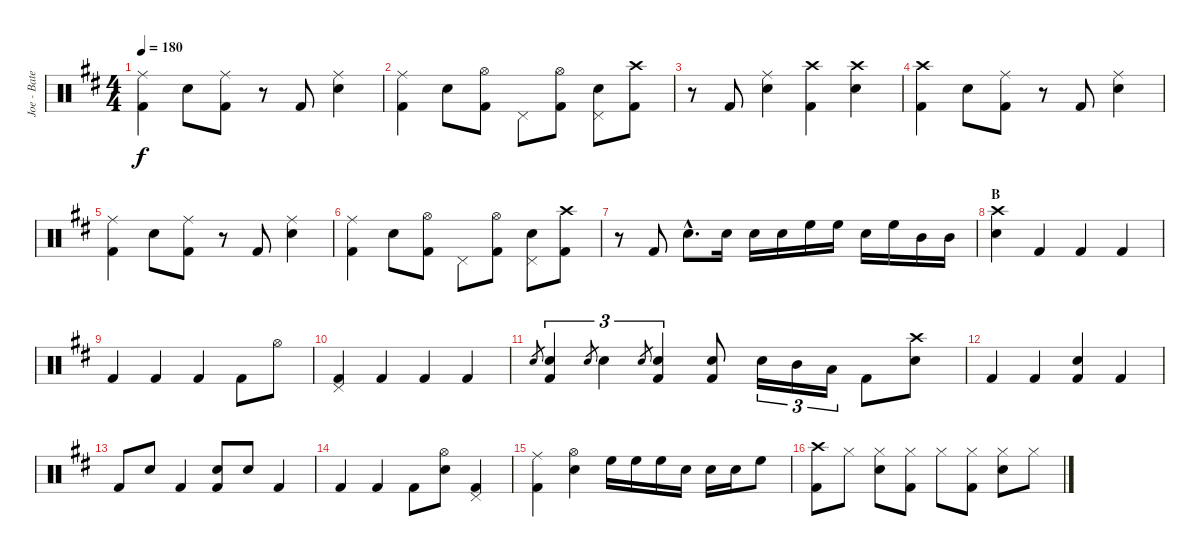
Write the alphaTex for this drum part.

\track ("Joe - Batería -" "Joe - Bate") {instrument percussion}
\staff {score}
\articulation defaults
\ts (4 4)
\tempo 180
\clef neutral
\ks bminor
("Ride (middle)" "Kick (hit) 2").4{dy f} "Snare (hit) 2".8 ("Ride (middle)" "Kick (hit) 2").8 r.8 "Kick (hit) 2".8 ("Ride (middle)" "Snare (hit) 2").4 |
("Ride (middle)" "Kick (hit) 2").4 "Snare (hit) 2".8 ("Hi-Hat (open)" "Kick (hit) 2").8 "Pedal Hi-Hat (hit)".8 ("Hi-Hat (open)" "Kick (hit) 2").8 ("Pedal Hi-Hat (hit)" "Snare (hit) 2").8 ("Crash high (hit)" "Kick (hit) 2").8 |
r.8 "Kick (hit) 2".8 ("Ride (middle)" "Snare (hit) 2").4 ("Crash high (hit)" "Kick (hit) 2").4 ("Crash high (hit)" "Snare (hit) 2").4 |
("Crash high (hit)" "Kick (hit) 2").4 "Snare (hit) 2".8 ("Ride (middle)" "Kick (hit) 2").8 r.8 "Kick (hit) 2".8 ("Ride (middle)" "Snare (hit) 2").4 |
("Ride (middle)" "Kick (hit) 2").4 "Snare (hit) 2".8 ("Ride (middle)" "Kick (hit) 2").8 r.8 "Kick (hit) 2".8 ("Ride (middle)" "Snare (hit) 2").4 |
("Ride (middle)" "Kick (hit) 2").4 "Snare (hit) 2".8 ("Hi-Hat (open)" "Kick (hit) 2").8 "Pedal Hi-Hat (hit)".8 ("Hi-Hat (open)" "Kick (hit) 2").8 ("Pedal Hi-Hat (hit)" "Snare (hit) 2").8 ("Crash high (hit)" "Kick (hit) 2").8 |
r.8 "Kick (hit) 2".8 "Snare (hit) 2"{hac}.8{d} "Snare (hit) 2".16 "Snare (hit) 2".16 "Snare (hit) 2".16 "High Floor Tom (hit)".16 "High Floor Tom (hit)".16 "Snare (hit) 2".16 "High Floor Tom (hit)".16 "Mid Tom (hit)".16 "Mid Tom (hit)".16 |
\section ("" "B")
("Crash high (hit)" "Snare (hit) 2").4 "Kick (hit) 2".4 "Kick (hit) 2".4 "Kick (hit) 2".4 |
"Kick (hit) 2".4 "Kick (hit) 2".4 "Kick (hit) 2".4 "Kick (hit) 2".8 "Hi-Hat (open)".8 |
("Pedal Hi-Hat (hit)" "Kick (hit) 2").4 "Kick (hit) 2".4 "Kick (hit) 2".4 "Kick (hit) 2".4 |
"Snare (hit) 2".8{gr} ("Snare (hit) 2" "Kick (hit) 2").4{tu (3 2)} "Snare (hit) 2".8{gr} "Snare (hit) 2".4{tu (3 2)} "Snare (hit) 2".8{gr} ("Snare (hit) 2" "Kick (hit) 2").4{tu (3 2)} ("Snare (hit) 2" "Kick (hit) 2").8 "Snare (hit) 2".16{tu (3 2)} "Mid Tom (hit)".16{tu (3 2)} "Low Tom (hit)".16{tu (3 2)} "Kick (hit) 2".8 ("Crash high (hit)" "Snare (hit) 2").8 |
\section ("" "")
"Kick (hit) 2".4 "Kick (hit) 2".4 ("Snare (hit) 2" "Kick (hit) 2").4 "Kick (hit) 2".4 |
"Kick (hit) 2".8 "Snare (hit) 2".8 "Kick (hit) 2".4 ("Snare (hit) 2" "Kick (hit) 2").8 "Snare (hit) 2".8 "Kick (hit) 2".4 |
"Kick (hit) 2".4 "Kick (hit) 2".4 "Kick (hit) 2".8 ("Snare (hit) 2" "Hi-Hat (open)").8 ("Kick (hit) 2" "Pedal Hi-Hat (hit)").4 |
("Ride (middle)" "Kick (hit) 2").4 ("Hi-Hat (open)" "Snare (hit) 2").4 "High Floor Tom (hit)".16 "High Floor Tom (hit)".16 "High Floor Tom (hit)".16 "Snare (hit) 2".16 "Snare (hit) 2".16 "Snare (hit) 2".16 "High Floor Tom (hit)".8 |
\section ("" "")
("Crash high (hit)" "Kick (hit) 2").8 "Hi-Hat (closed)".8 ("Hi-Hat (closed)" "Snare (hit) 2").8 ("Hi-Hat (closed)" "Kick (hit) 2").8 "Hi-Hat (closed)".8 ("Hi-Hat (closed)" "Kick (hit) 2").8 ("Hi-Hat (closed)" "Snare (hit) 2").8 "Hi-Hat (closed)".8
